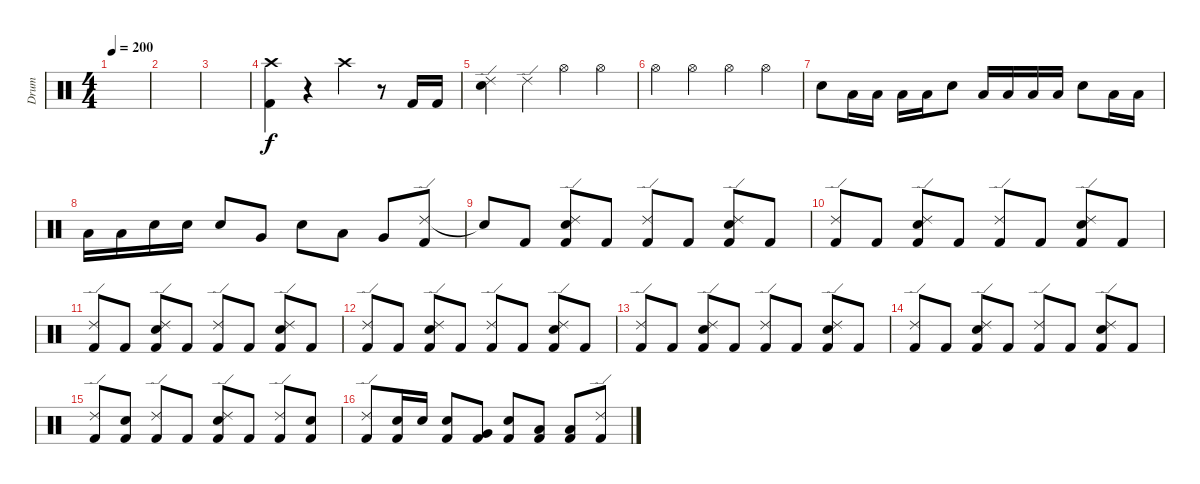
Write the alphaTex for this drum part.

\track ("Drum" "Drum") {instrument percussion}
\staff {score}
\articulation defaults
\ts (4 4)
\tempo 200
\clef neutral
\ks c
|
|
|
("Crash high (hit)" "Kick (hit) 2").4 r.4 "Crash high (hit)".4 r.8 "Kick (hit) 2".16 "Kick (hit) 2".16 |
("Ride (edge) 2" "Electric Snare (hit)").4 "Ride (edge) 2".4 "Hi-Hat (open)".4 "Hi-Hat (open)".4 |
"Hi-Hat (open)".4 "Hi-Hat (open)".4 "Hi-Hat (open)".4 "Hi-Hat (open)".4 |
"Electric Snare (hit)".8 "Low Tom (hit)".16 "Low Tom (hit)".16 "Low Tom (hit)".16 "Low Tom (hit)".16 "Electric Snare (hit)".8 "Low Tom (hit)".16 "Low Tom (hit)".16 "Low Tom (hit)".16 "Low Tom (hit)".16 "Electric Snare (hit)".8 "Low Tom (hit)".16 "Low Tom (hit)".16 |
"Low Tom (hit)".16 "Low Tom (hit)".16 "Electric Snare (hit)".16 "Electric Snare (hit)".16 "Electric Snare (hit)".8 "Very Low Tom (hit)".8 "Electric Snare (hit)".8 "Low Tom (hit)".8 "Very Low Tom (hit)".8 ("Ride (edge) 2" "Kick (hit) 2").8 |
"Snare (hit)"{t}.8 "Kick (hit) 2".8 ("Ride (edge) 2" "Electric Snare (hit)" "Kick (hit) 2").8 "Kick (hit) 2".8 ("Ride (edge) 2" "Kick (hit) 2").8 "Kick (hit) 2".8 ("Ride (edge) 2" "Electric Snare (hit)" "Kick (hit) 2").8 "Kick (hit) 2".8 |
("Ride (edge) 2" "Kick (hit) 2").8 "Kick (hit) 2".8 ("Ride (edge) 2" "Electric Snare (hit)" "Kick (hit) 2").8 "Kick (hit) 2".8 ("Ride (edge) 2" "Kick (hit) 2").8 "Kick (hit) 2".8 ("Ride (edge) 2" "Electric Snare (hit)" "Kick (hit) 2").8 "Kick (hit) 2".8 |
("Ride (edge) 2" "Kick (hit) 2").8 "Kick (hit) 2".8 ("Ride (edge) 2" "Electric Snare (hit)" "Kick (hit) 2").8 "Kick (hit) 2".8 ("Ride (edge) 2" "Kick (hit) 2").8 "Kick (hit) 2".8 ("Ride (edge) 2" "Electric Snare (hit)" "Kick (hit) 2").8 "Kick (hit) 2".8 |
("Ride (edge) 2" "Kick (hit) 2").8 "Kick (hit) 2".8 ("Ride (edge) 2" "Electric Snare (hit)" "Kick (hit) 2").8 "Kick (hit) 2".8 ("Ride (edge) 2" "Kick (hit) 2").8 "Kick (hit) 2".8 ("Ride (edge) 2" "Electric Snare (hit)" "Kick (hit) 2").8 "Kick (hit) 2".8 |
("Ride (edge) 2" "Kick (hit) 2").8 "Kick (hit) 2".8 ("Ride (edge) 2" "Electric Snare (hit)" "Kick (hit) 2").8 "Kick (hit) 2".8 ("Ride (edge) 2" "Kick (hit) 2").8 "Kick (hit) 2".8 ("Ride (edge) 2" "Electric Snare (hit)" "Kick (hit) 2").8 "Kick (hit) 2".8 |
("Ride (edge) 2" "Kick (hit) 2").8 "Kick (hit) 2".8 ("Ride (edge) 2" "Electric Snare (hit)" "Kick (hit) 2").8 "Kick (hit) 2".8 ("Ride (edge) 2" "Kick (hit) 2").8 "Kick (hit) 2".8 ("Ride (edge) 2" "Electric Snare (hit)" "Kick (hit) 2").8 "Kick (hit) 2".8 |
("Ride (edge) 2" "Kick (hit) 2").8 ("Electric Snare (hit)" "Kick (hit) 2").8 ("Ride (edge) 2" "Kick (hit) 2").8 "Kick (hit) 2".8 ("Ride (edge) 2" "Electric Snare (hit)" "Kick (hit) 2").8 "Kick (hit) 2".8 ("Ride (edge) 2" "Kick (hit) 2").8 ("Electric Snare (hit)" "Kick (hit) 2").8 |
("Ride (edge) 2" "Kick (hit) 2").8 ("Electric Snare (hit)" "Kick (hit) 2").16 "Electric Snare (hit)".16 ("Electric Snare (hit)" "Kick (hit) 2").8 ("Very Low Tom (hit)" "Kick (hit) 2").8 ("Electric Snare (hit)" "Kick (hit) 2").8 ("Low Tom (hit)" "Kick (hit) 2").8 ("Low Floor Tom (hit)" "Kick (hit) 2").8 ("Ride (edge) 2" "Kick (hit) 2").8
